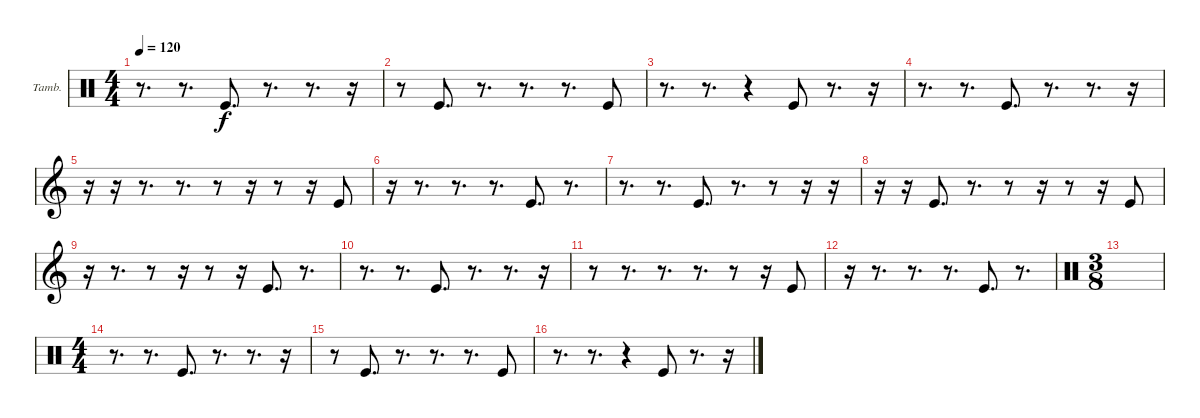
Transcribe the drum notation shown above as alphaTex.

\defaultSystemsLayout 4
\bracketExtendMode groupsimilarinstruments
\firstSystemTrackNameOrientation horizontal
\otherSystemsTrackNameOrientation horizontal
\track ("Tambourine" "Tamb.") {instrument percussion}
\staff {score}
\articulation defaults
\ts (4 4)
\tempo 120
\clef neutral
\scale
0.472222
\ks c
r.8{d dy f} r.8{d} "Kick (hit)".8{d} r.8{d} r.8{d} r.16 |
\scale
0.263889 r.8 "Kick (hit)".8{d} r.8{d} r.8{d} r.8{d} "Kick (hit)".8 |
\scale
0.263889 r.8{d} r.8{d} r.4 "Kick (hit)".8 r.8{d} r.16 |
\scale
0.333333 r.8{d} r.8{d} "Kick (hit)".8{d} r.8{d} r.8{d} r.16 |
\clef g2
\scale
0.333333 r.16 r.16 r.8{d} r.8{d} r.8 r.16 r.8 r.16 "Kick (hit)".8 |
\scale
0.333333 r.16 r.8{d} r.8{d} r.8{d} "Kick (hit)".8{d} r.8{d} |
\scale
0.333333 r.8{d} r.8{d} "Kick (hit)".8{d} r.8{d} r.8 r.16 r.16 |
\scale
0.333333 r.16 r.16 "Kick (hit)".8{d} r.8{d} r.8 r.16 r.8 r.16 "Kick (hit)".8 |
\scale
0.333333 r.16 r.8{d} r.8 r.16 r.8 r.16 "Kick (hit)".8{d} r.8{d} |
\scale
0.333333 r.8{d} r.8{d} "Kick (hit)".8{d} r.8{d} r.8{d} r.16 |
\scale
0.333333 r.8 r.8{d} r.8{d} r.8{d} r.8 r.16 "Kick (hit)".8 |
\scale
0.333333 r.16 r.8{d} r.8{d} r.8{d} "Kick (hit)".8{d} r.8{d} |
\ts (3 8)
\clef neutral
\scale
0.390805 |
\ts (4 4)
\scale
0.390805 r.8{d} r.8{d} "Kick (hit)".8{d} r.8{d} r.8{d} r.16 |
\scale
0.218391 r.8 "Kick (hit)".8{d} r.8{d} r.8{d} r.8{d} "Kick (hit)".8 |
\scale
0.333333 r.8{d} r.8{d} r.4 "Kick (hit)".8 r.8{d} r.16
